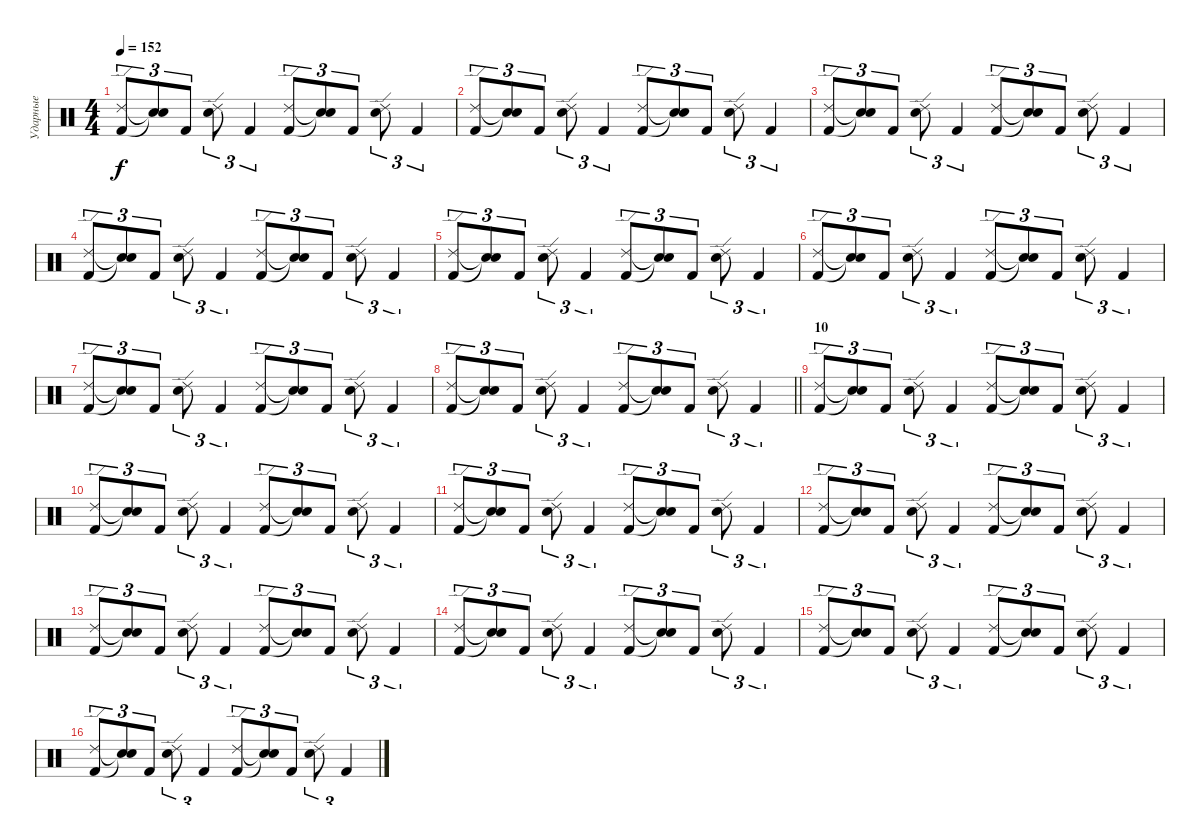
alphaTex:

\track ("Ударные" "Ударные") {instrument percussion}
\staff {score}
\articulation defaults
\ts (4 4)
\tempo 152
\clef neutral
\ks c
("Kick (hit) 2" "Ride (edge) 2").8{tu (3 2) dy f} ("Snare (hit)"{t} "Snare (hit)"{t}).8{tu (3 2)} "Kick (hit) 2".8{tu (3 2)} ("Electric Snare (hit)" "Ride (edge) 2").8{tu (3 2)} "Kick (hit) 2".4{tu (3 2)} ("Kick (hit) 2" "Ride (edge) 2").8{tu (3 2)} ("Snare (hit)"{t} "Snare (hit)"{t}).8{tu (3 2)} "Kick (hit) 2".8{tu (3 2)} ("Electric Snare (hit)" "Ride (edge) 2").8{tu (3 2)} "Kick (hit) 2".4{tu (3 2)} |
("Kick (hit) 2" "Ride (edge) 2").8{tu (3 2)} ("Snare (hit)"{t} "Snare (hit)"{t}).8{tu (3 2)} "Kick (hit) 2".8{tu (3 2)} ("Electric Snare (hit)" "Ride (edge) 2").8{tu (3 2)} "Kick (hit) 2".4{tu (3 2)} ("Kick (hit) 2" "Ride (edge) 2").8{tu (3 2)} ("Snare (hit)"{t} "Snare (hit)"{t}).8{tu (3 2)} "Kick (hit) 2".8{tu (3 2)} ("Electric Snare (hit)" "Ride (edge) 2").8{tu (3 2)} "Kick (hit) 2".4{tu (3 2)} |
("Kick (hit) 2" "Ride (edge) 2").8{tu (3 2)} ("Snare (hit)"{t} "Snare (hit)"{t}).8{tu (3 2)} "Kick (hit) 2".8{tu (3 2)} ("Electric Snare (hit)" "Ride (edge) 2").8{tu (3 2)} "Kick (hit) 2".4{tu (3 2)} ("Kick (hit) 2" "Ride (edge) 2").8{tu (3 2)} ("Snare (hit)"{t} "Snare (hit)"{t}).8{tu (3 2)} "Kick (hit) 2".8{tu (3 2)} ("Electric Snare (hit)" "Ride (edge) 2").8{tu (3 2)} "Kick (hit) 2".4{tu (3 2)} |
("Kick (hit) 2" "Ride (edge) 2").8{tu (3 2)} ("Snare (hit)"{t} "Snare (hit)"{t}).8{tu (3 2)} "Kick (hit) 2".8{tu (3 2)} ("Electric Snare (hit)" "Ride (edge) 2").8{tu (3 2)} "Kick (hit) 2".4{tu (3 2)} ("Kick (hit) 2" "Ride (edge) 2").8{tu (3 2)} ("Snare (hit)"{t} "Snare (hit)"{t}).8{tu (3 2)} "Kick (hit) 2".8{tu (3 2)} ("Electric Snare (hit)" "Ride (edge) 2").8{tu (3 2)} "Kick (hit) 2".4{tu (3 2)} |
("Kick (hit) 2" "Ride (edge) 2").8{tu (3 2)} ("Snare (hit)"{t} "Snare (hit)"{t}).8{tu (3 2)} "Kick (hit) 2".8{tu (3 2)} ("Electric Snare (hit)" "Ride (edge) 2").8{tu (3 2)} "Kick (hit) 2".4{tu (3 2)} ("Kick (hit) 2" "Ride (edge) 2").8{tu (3 2)} ("Snare (hit)"{t} "Snare (hit)"{t}).8{tu (3 2)} "Kick (hit) 2".8{tu (3 2)} ("Electric Snare (hit)" "Ride (edge) 2").8{tu (3 2)} "Kick (hit) 2".4{tu (3 2)} |
("Kick (hit) 2" "Ride (edge) 2").8{tu (3 2)} ("Snare (hit)"{t} "Snare (hit)"{t}).8{tu (3 2)} "Kick (hit) 2".8{tu (3 2)} ("Electric Snare (hit)" "Ride (edge) 2").8{tu (3 2)} "Kick (hit) 2".4{tu (3 2)} ("Kick (hit) 2" "Ride (edge) 2").8{tu (3 2)} ("Snare (hit)"{t} "Snare (hit)"{t}).8{tu (3 2)} "Kick (hit) 2".8{tu (3 2)} ("Electric Snare (hit)" "Ride (edge) 2").8{tu (3 2)} "Kick (hit) 2".4{tu (3 2)} |
("Kick (hit) 2" "Ride (edge) 2").8{tu (3 2)} ("Snare (hit)"{t} "Snare (hit)"{t}).8{tu (3 2)} "Kick (hit) 2".8{tu (3 2)} ("Electric Snare (hit)" "Ride (edge) 2").8{tu (3 2)} "Kick (hit) 2".4{tu (3 2)} ("Kick (hit) 2" "Ride (edge) 2").8{tu (3 2)} ("Snare (hit)"{t} "Snare (hit)"{t}).8{tu (3 2)} "Kick (hit) 2".8{tu (3 2)} ("Electric Snare (hit)" "Ride (edge) 2").8{tu (3 2)} "Kick (hit) 2".4{tu (3 2)} |
\barLineRight lightlight
("Kick (hit) 2" "Ride (edge) 2").8{tu (3 2)} ("Snare (hit)"{t} "Snare (hit)"{t}).8{tu (3 2)} "Kick (hit) 2".8{tu (3 2)} ("Electric Snare (hit)" "Ride (edge) 2").8{tu (3 2)} "Kick (hit) 2".4{tu (3 2)} ("Kick (hit) 2" "Ride (edge) 2").8{tu (3 2)} ("Snare (hit)"{t} "Snare (hit)"{t}).8{tu (3 2)} "Kick (hit) 2".8{tu (3 2)} ("Electric Snare (hit)" "Ride (edge) 2").8{tu (3 2)} "Kick (hit) 2".4{tu (3 2)} |
\section ("" "10")
("Kick (hit) 2" "Ride (edge) 2").8{tu (3 2)} ("Snare (hit)"{t} "Snare (hit)"{t}).8{tu (3 2)} "Kick (hit) 2".8{tu (3 2)} ("Electric Snare (hit)" "Ride (edge) 2").8{tu (3 2)} "Kick (hit) 2".4{tu (3 2)} ("Kick (hit) 2" "Ride (edge) 2").8{tu (3 2)} ("Snare (hit)"{t} "Snare (hit)"{t}).8{tu (3 2)} "Kick (hit) 2".8{tu (3 2)} ("Electric Snare (hit)" "Ride (edge) 2").8{tu (3 2)} "Kick (hit) 2".4{tu (3 2)} |
("Kick (hit) 2" "Ride (edge) 2").8{tu (3 2)} ("Snare (hit)"{t} "Snare (hit)"{t}).8{tu (3 2)} "Kick (hit) 2".8{tu (3 2)} ("Electric Snare (hit)" "Ride (edge) 2").8{tu (3 2)} "Kick (hit) 2".4{tu (3 2)} ("Kick (hit) 2" "Ride (edge) 2").8{tu (3 2)} ("Snare (hit)"{t} "Snare (hit)"{t}).8{tu (3 2)} "Kick (hit) 2".8{tu (3 2)} ("Electric Snare (hit)" "Ride (edge) 2").8{tu (3 2)} "Kick (hit) 2".4{tu (3 2)} |
("Kick (hit) 2" "Ride (edge) 2").8{tu (3 2)} ("Snare (hit)"{t} "Snare (hit)"{t}).8{tu (3 2)} "Kick (hit) 2".8{tu (3 2)} ("Electric Snare (hit)" "Ride (edge) 2").8{tu (3 2)} "Kick (hit) 2".4{tu (3 2)} ("Kick (hit) 2" "Ride (edge) 2").8{tu (3 2)} ("Snare (hit)"{t} "Snare (hit)"{t}).8{tu (3 2)} "Kick (hit) 2".8{tu (3 2)} ("Electric Snare (hit)" "Ride (edge) 2").8{tu (3 2)} "Kick (hit) 2".4{tu (3 2)} |
("Kick (hit) 2" "Ride (edge) 2").8{tu (3 2)} ("Snare (hit)"{t} "Snare (hit)"{t}).8{tu (3 2)} "Kick (hit) 2".8{tu (3 2)} ("Electric Snare (hit)" "Ride (edge) 2").8{tu (3 2)} "Kick (hit) 2".4{tu (3 2)} ("Kick (hit) 2" "Ride (edge) 2").8{tu (3 2)} ("Snare (hit)"{t} "Snare (hit)"{t}).8{tu (3 2)} "Kick (hit) 2".8{tu (3 2)} ("Electric Snare (hit)" "Ride (edge) 2").8{tu (3 2)} "Kick (hit) 2".4{tu (3 2)} |
("Kick (hit) 2" "Ride (edge) 2").8{tu (3 2)} ("Snare (hit)"{t} "Snare (hit)"{t}).8{tu (3 2)} "Kick (hit) 2".8{tu (3 2)} ("Electric Snare (hit)" "Ride (edge) 2").8{tu (3 2)} "Kick (hit) 2".4{tu (3 2)} ("Kick (hit) 2" "Ride (edge) 2").8{tu (3 2)} ("Snare (hit)"{t} "Snare (hit)"{t}).8{tu (3 2)} "Kick (hit) 2".8{tu (3 2)} ("Electric Snare (hit)" "Ride (edge) 2").8{tu (3 2)} "Kick (hit) 2".4{tu (3 2)} |
("Kick (hit) 2" "Ride (edge) 2").8{tu (3 2)} ("Snare (hit)"{t} "Snare (hit)"{t}).8{tu (3 2)} "Kick (hit) 2".8{tu (3 2)} ("Electric Snare (hit)" "Ride (edge) 2").8{tu (3 2)} "Kick (hit) 2".4{tu (3 2)} ("Kick (hit) 2" "Ride (edge) 2").8{tu (3 2)} ("Snare (hit)"{t} "Snare (hit)"{t}).8{tu (3 2)} "Kick (hit) 2".8{tu (3 2)} ("Electric Snare (hit)" "Ride (edge) 2").8{tu (3 2)} "Kick (hit) 2".4{tu (3 2)} |
("Kick (hit) 2" "Ride (edge) 2").8{tu (3 2)} ("Snare (hit)"{t} "Snare (hit)"{t}).8{tu (3 2)} "Kick (hit) 2".8{tu (3 2)} ("Electric Snare (hit)" "Ride (edge) 2").8{tu (3 2)} "Kick (hit) 2".4{tu (3 2)} ("Kick (hit) 2" "Ride (edge) 2").8{tu (3 2)} ("Snare (hit)"{t} "Snare (hit)"{t}).8{tu (3 2)} "Kick (hit) 2".8{tu (3 2)} ("Electric Snare (hit)" "Ride (edge) 2").8{tu (3 2)} "Kick (hit) 2".4{tu (3 2)} |
("Kick (hit) 2" "Ride (edge) 2").8{tu (3 2)} ("Snare (hit)"{t} "Snare (hit)"{t}).8{tu (3 2)} "Kick (hit) 2".8{tu (3 2)} ("Electric Snare (hit)" "Ride (edge) 2").8{tu (3 2)} "Kick (hit) 2".4{tu (3 2)} ("Kick (hit) 2" "Ride (edge) 2").8{tu (3 2)} ("Snare (hit)"{t} "Snare (hit)"{t}).8{tu (3 2)} "Kick (hit) 2".8{tu (3 2)} ("Electric Snare (hit)" "Ride (edge) 2").8{tu (3 2)} "Kick (hit) 2".4{tu (3 2)}
